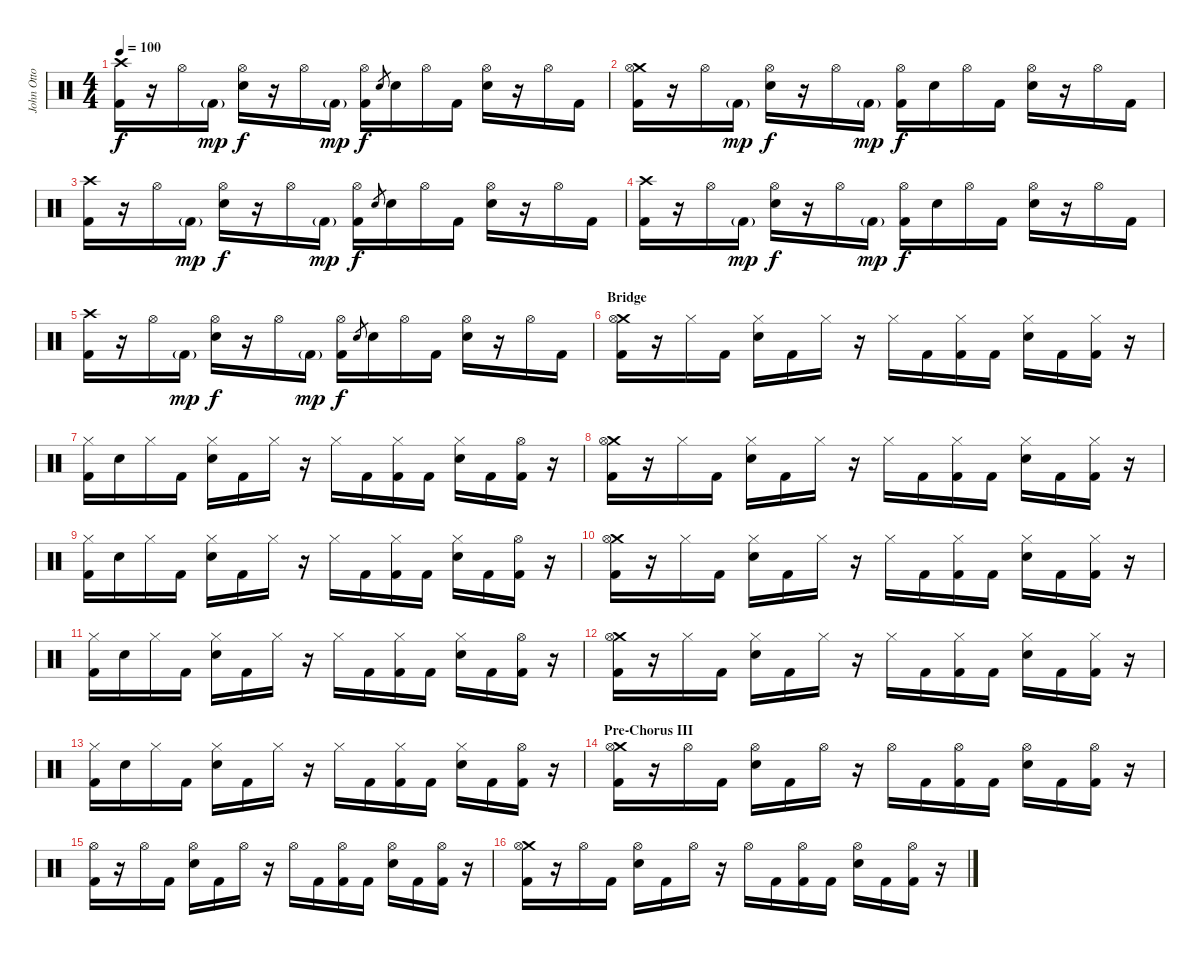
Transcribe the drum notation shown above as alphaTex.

\track ("John Otto - Drums" "John Otto ") {instrument percussion}
\staff {score}
\articulation defaults
\ts (4 4)
\tempo 100
\clef neutral
\ks c
("Crash high (hit)" "Kick (hit) 2").16{dy f} r.16 "Hi-Hat (open)".16 "Kick (hit) 2"{g}.16{dy mp} ("Hi-Hat (open)" "Snare (hit) 2").16{dy f} r.16 "Hi-Hat (open)".16 "Kick (hit) 2"{g}.16{dy mp} ("Hi-Hat (open)" "Kick (hit) 2").16{dy f} "Snare (hit) 2".8{gr} "Snare (hit) 2".16 "Hi-Hat (open)".16 "Kick (hit) 2".16 ("Hi-Hat (open)" "Snare (hit) 2").16 r.16 "Hi-Hat (open)".16 "Kick (hit) 2".16 |
("Crash medium (hit)" "Hi-Hat (open)" "Kick (hit) 2").16 r.16 "Hi-Hat (open)".16 "Kick (hit) 2"{g}.16{dy mp} ("Hi-Hat (open)" "Snare (hit) 2").16{dy f} r.16 "Hi-Hat (open)".16 "Kick (hit) 2"{g}.16{dy mp} ("Hi-Hat (open)" "Kick (hit) 2").16{dy f} "Snare (hit) 2".16 "Hi-Hat (open)".16 "Kick (hit) 2".16 ("Hi-Hat (open)" "Snare (hit) 2").16 r.16 "Hi-Hat (open)".16 "Kick (hit) 2".16 |
("Crash high (hit)" "Kick (hit) 2").16 r.16 "Hi-Hat (open)".16 "Kick (hit) 2"{g}.16{dy mp} ("Hi-Hat (open)" "Snare (hit) 2").16{dy f} r.16 "Hi-Hat (open)".16 "Kick (hit) 2"{g}.16{dy mp} ("Hi-Hat (open)" "Kick (hit) 2").16{dy f} "Snare (hit) 2".8{gr} "Snare (hit) 2".16 "Hi-Hat (open)".16 "Kick (hit) 2".16 ("Hi-Hat (open)" "Snare (hit) 2").16 r.16 "Hi-Hat (open)".16 "Kick (hit) 2".16 |
("Crash high (hit)" "Kick (hit) 2").16 r.16 "Hi-Hat (open)".16 "Kick (hit) 2"{g}.16{dy mp} ("Hi-Hat (open)" "Snare (hit) 2").16{dy f} r.16 "Hi-Hat (open)".16 "Kick (hit) 2"{g}.16{dy mp} ("Hi-Hat (open)" "Kick (hit) 2").16{dy f} "Snare (hit) 2".16 "Hi-Hat (open)".16 "Kick (hit) 2".16 ("Hi-Hat (open)" "Snare (hit) 2").16 r.16 "Hi-Hat (open)".16 "Kick (hit) 2".16 |
("Crash high (hit)" "Kick (hit) 2").16 r.16 "Hi-Hat (open)".16 "Kick (hit) 2"{g}.16{dy mp} ("Hi-Hat (open)" "Snare (hit) 2").16{dy f} r.16 "Hi-Hat (open)".16 "Kick (hit) 2"{g}.16{dy mp} ("Hi-Hat (open)" "Kick (hit) 2").16{dy f} "Snare (hit) 2".8{gr} "Snare (hit) 2".16 "Hi-Hat (open)".16 "Kick (hit) 2".16 ("Hi-Hat (open)" "Snare (hit) 2").16 r.16 "Hi-Hat (open)".16 "Kick (hit) 2".16 |
\section ("" "Bridge")
("Crash medium (hit)" "Hi-Hat (open)" "Kick (hit) 2").16 r.16 "Hi-Hat (closed)".16 "Kick (hit) 2".16 ("Hi-Hat (closed)" "Snare (hit) 2").16 "Kick (hit) 2".16 "Hi-Hat (closed)".16 r.16 "Hi-Hat (closed)".16 "Kick (hit) 2".16 ("Hi-Hat (closed)" "Kick (hit) 2").16 "Kick (hit) 2".16 ("Hi-Hat (closed)" "Snare (hit) 2").16 "Kick (hit) 2".16 ("Hi-Hat (closed)" "Kick (hit) 2").16 r.16 |
("Hi-Hat (closed)" "Kick (hit) 2").16 "Snare (hit)".16 "Hi-Hat (closed)".16 "Kick (hit) 2".16 ("Hi-Hat (closed)" "Snare (hit) 2").16 "Kick (hit) 2".16 "Hi-Hat (closed)".16 r.16 "Hi-Hat (closed)".16 "Kick (hit) 2".16 ("Hi-Hat (closed)" "Kick (hit) 2").16 "Kick (hit) 2".16 ("Hi-Hat (closed)" "Snare (hit) 2").16 "Kick (hit) 2".16 ("Hi-Hat (open)" "Kick (hit) 2").16 r.16 |
("Crash medium (hit)" "Hi-Hat (open)" "Kick (hit) 2").16 r.16 "Hi-Hat (closed)".16 "Kick (hit) 2".16 ("Hi-Hat (closed)" "Snare (hit) 2").16 "Kick (hit) 2".16 "Hi-Hat (closed)".16 r.16 "Hi-Hat (closed)".16 "Kick (hit) 2".16 ("Hi-Hat (closed)" "Kick (hit) 2").16 "Kick (hit) 2".16 ("Hi-Hat (closed)" "Snare (hit) 2").16 "Kick (hit) 2".16 ("Hi-Hat (closed)" "Kick (hit) 2").16 r.16 |
("Hi-Hat (closed)" "Kick (hit) 2").16 "Snare (hit)".16 "Hi-Hat (closed)".16 "Kick (hit) 2".16 ("Hi-Hat (closed)" "Snare (hit) 2").16 "Kick (hit) 2".16 "Hi-Hat (closed)".16 r.16 "Hi-Hat (closed)".16 "Kick (hit) 2".16 ("Hi-Hat (closed)" "Kick (hit) 2").16 "Kick (hit) 2".16 ("Hi-Hat (closed)" "Snare (hit) 2").16 "Kick (hit) 2".16 ("Hi-Hat (open)" "Kick (hit) 2").16 r.16 |
("Crash medium (hit)" "Hi-Hat (open)" "Kick (hit) 2").16 r.16 "Hi-Hat (closed)".16 "Kick (hit) 2".16 ("Hi-Hat (closed)" "Snare (hit) 2").16 "Kick (hit) 2".16 "Hi-Hat (closed)".16 r.16 "Hi-Hat (closed)".16 "Kick (hit) 2".16 ("Hi-Hat (closed)" "Kick (hit) 2").16 "Kick (hit) 2".16 ("Hi-Hat (closed)" "Snare (hit) 2").16 "Kick (hit) 2".16 ("Hi-Hat (closed)" "Kick (hit) 2").16 r.16 |
("Hi-Hat (closed)" "Kick (hit) 2").16 "Snare (hit)".16 "Hi-Hat (closed)".16 "Kick (hit) 2".16 ("Hi-Hat (closed)" "Snare (hit) 2").16 "Kick (hit) 2".16 "Hi-Hat (closed)".16 r.16 "Hi-Hat (closed)".16 "Kick (hit) 2".16 ("Hi-Hat (closed)" "Kick (hit) 2").16 "Kick (hit) 2".16 ("Hi-Hat (closed)" "Snare (hit) 2").16 "Kick (hit) 2".16 ("Hi-Hat (open)" "Kick (hit) 2").16 r.16 |
("Crash medium (hit)" "Hi-Hat (open)" "Kick (hit) 2").16 r.16 "Hi-Hat (closed)".16 "Kick (hit) 2".16 ("Hi-Hat (closed)" "Snare (hit) 2").16 "Kick (hit) 2".16 "Hi-Hat (closed)".16 r.16 "Hi-Hat (closed)".16 "Kick (hit) 2".16 ("Hi-Hat (closed)" "Kick (hit) 2").16 "Kick (hit) 2".16 ("Hi-Hat (closed)" "Snare (hit) 2").16 "Kick (hit) 2".16 ("Hi-Hat (closed)" "Kick (hit) 2").16 r.16 |
("Hi-Hat (closed)" "Kick (hit) 2").16 "Snare (hit)".16 "Hi-Hat (closed)".16 "Kick (hit) 2".16 ("Hi-Hat (closed)" "Snare (hit) 2").16 "Kick (hit) 2".16 "Hi-Hat (closed)".16 r.16 "Hi-Hat (closed)".16 "Kick (hit) 2".16 ("Hi-Hat (closed)" "Kick (hit) 2").16 "Kick (hit) 2".16 ("Hi-Hat (closed)" "Snare (hit) 2").16 "Kick (hit) 2".16 ("Hi-Hat (open)" "Kick (hit) 2").16 r.16 |
\section ("" "Pre-Chorus III")
("Crash medium (hit)" "Hi-Hat (open)" "Kick (hit) 2").16 r.16 "Hi-Hat (open)".16 "Kick (hit) 2".16 ("Hi-Hat (open)" "Snare (hit) 2").16 "Kick (hit) 2".16 "Hi-Hat (open)".16 r.16 "Hi-Hat (open)".16 "Kick (hit) 2".16 ("Hi-Hat (open)" "Kick (hit) 2").16 "Kick (hit) 2".16 ("Hi-Hat (open)" "Snare (hit) 2").16 "Kick (hit) 2".16 ("Hi-Hat (open)" "Kick (hit) 2").16 r.16 |
("Hi-Hat (open)" "Kick (hit) 2").16 r.16 "Hi-Hat (open)".16 "Kick (hit) 2".16 ("Hi-Hat (open)" "Snare (hit) 2").16 "Kick (hit) 2".16 "Hi-Hat (open)".16 r.16 "Hi-Hat (open)".16 "Kick (hit) 2".16 ("Hi-Hat (open)" "Kick (hit) 2").16 "Kick (hit) 2".16 ("Hi-Hat (open)" "Snare (hit) 2").16 "Kick (hit) 2".16 ("Hi-Hat (open)" "Kick (hit) 2").16 r.16 |
("Crash medium (hit)" "Hi-Hat (open)" "Kick (hit) 2").16 r.16 "Hi-Hat (open)".16 "Kick (hit) 2".16 ("Hi-Hat (open)" "Snare (hit) 2").16 "Kick (hit) 2".16 "Hi-Hat (open)".16 r.16 "Hi-Hat (open)".16 "Kick (hit) 2".16 ("Hi-Hat (open)" "Kick (hit) 2").16 "Kick (hit) 2".16 ("Hi-Hat (open)" "Snare (hit) 2").16 "Kick (hit) 2".16 ("Hi-Hat (open)" "Kick (hit) 2").16 r.16
